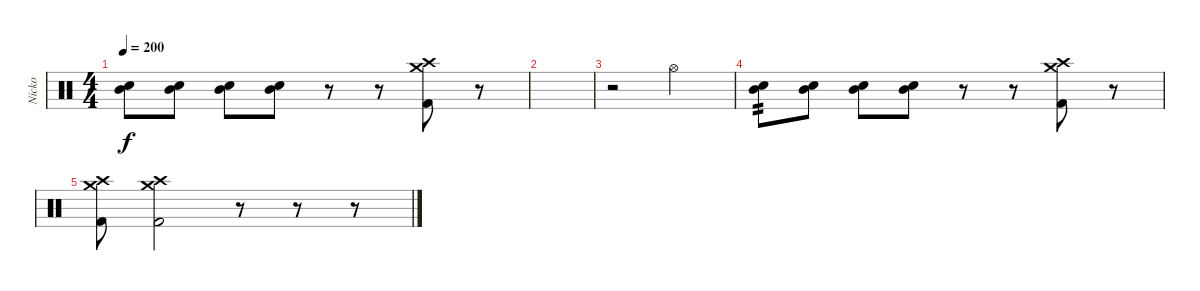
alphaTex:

\track ("Nicko" "Nicko") {instrument percussion}
\staff {score}
\articulation defaults
\ts (4 4)
\tempo 200
\clef neutral
\ks c
("Mid Tom (hit)" "Electric Snare (hit)").8{dy f} ("Mid Tom (hit)" "Electric Snare (hit)").8 ("Mid Tom (hit)" "Electric Snare (hit)").8 ("Mid Tom (hit)" "Electric Snare (hit)").8 r.8 r.8 ("Crash medium (hit)" "Crash high (hit)" "Kick (hit) 2").8 r.8 |
|
r.2 "Hi-Hat (open)".2 |
("Mid Tom (hit)" "Electric Snare (hit)").8{tp 2} ("Mid Tom (hit)" "Electric Snare (hit)").8 ("Mid Tom (hit)" "Electric Snare (hit)").8 ("Mid Tom (hit)" "Electric Snare (hit)").8 r.8 r.8 ("Crash medium (hit)" "Crash high (hit)" "Kick (hit) 2").8 r.8 |
("Crash high (hit)" "Crash medium (hit)" "Kick (hit) 2").8 ("Crash high (hit)" "Crash medium (hit)" "Kick (hit) 2").2 r.8 r.8 r.8
